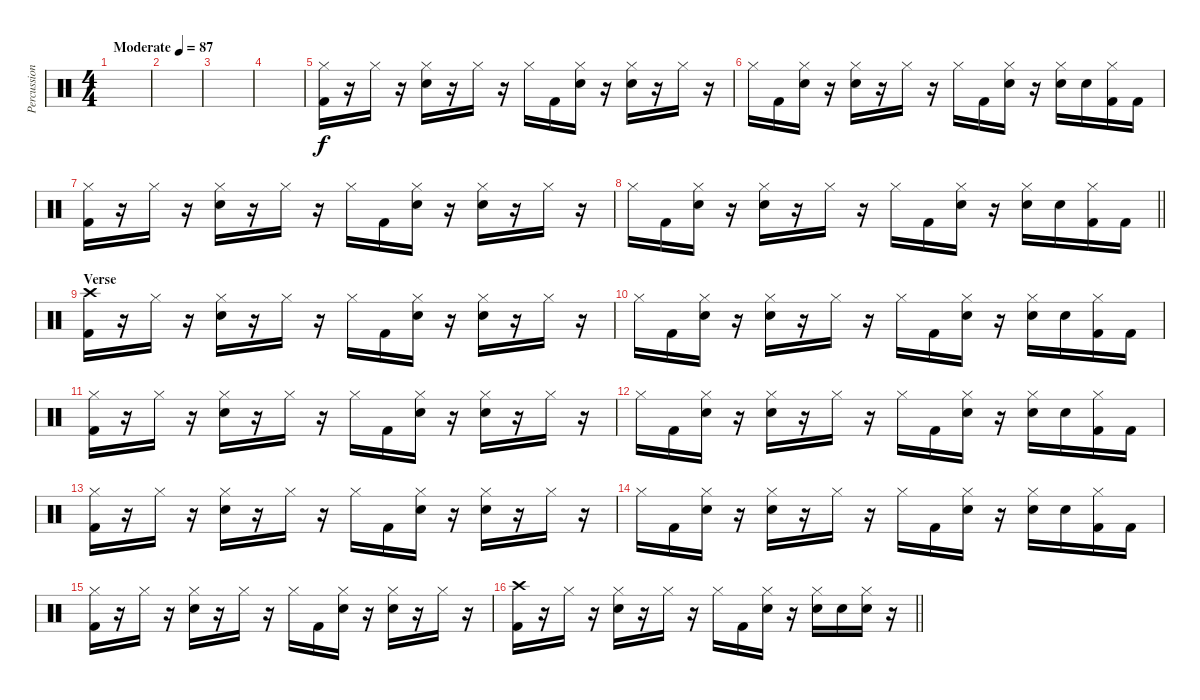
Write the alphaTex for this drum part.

\track ("Percussion" "Percussion") {instrument percussion}
\staff {score}
\articulation defaults
\ts (4 4)
\tempo (87 "Moderate")
\clef neutral
\ks c
|
|
|
|
("Hi-Hat (closed)" "Kick (hit) 2").16 r.16 "Hi-Hat (closed)".16 r.16 ("Hi-Hat (closed)" "Electric Snare (hit)").16 r.16 "Hi-Hat (closed)".16 r.16 "Hi-Hat (closed)".16 "Kick (hit) 2".16 ("Hi-Hat (closed)" "Electric Snare (hit)").16 r.16 ("Hi-Hat (closed)" "Electric Snare (hit)").16 r.16 "Hi-Hat (closed)".16 r.16 |
"Hi-Hat (closed)".16 "Kick (hit) 2".16 ("Hi-Hat (closed)" "Electric Snare (hit)").16 r.16 ("Hi-Hat (closed)" "Electric Snare (hit)").16 r.16 "Hi-Hat (closed)".16 r.16 "Hi-Hat (closed)".16 "Kick (hit) 2".16 ("Hi-Hat (closed)" "Electric Snare (hit)").16 r.16 ("Hi-Hat (closed)" "Electric Snare (hit)").16 "Electric Snare (hit)".16 ("Hi-Hat (closed)" "Kick (hit) 2").16 "Kick (hit) 2".16 |
("Hi-Hat (closed)" "Kick (hit) 2").16 r.16 "Hi-Hat (closed)".16 r.16 ("Hi-Hat (closed)" "Electric Snare (hit)").16 r.16 "Hi-Hat (closed)".16 r.16 "Hi-Hat (closed)".16 "Kick (hit) 2".16 ("Hi-Hat (closed)" "Electric Snare (hit)").16 r.16 ("Hi-Hat (closed)" "Electric Snare (hit)").16 r.16 "Hi-Hat (closed)".16 r.16 |
\barLineRight lightlight "Hi-Hat (closed)".16 "Kick (hit) 2".16
("Hi-Hat (closed)" "Electric Snare (hit)").16 r.16 ("Hi-Hat (closed)" "Electric Snare (hit)").16 r.16 "Hi-Hat (closed)".16 r.16 "Hi-Hat (closed)".16 "Kick (hit) 2".16 ("Hi-Hat (closed)" "Electric Snare (hit)").16 r.16 ("Hi-Hat (closed)" "Electric Snare (hit)").16 "Electric Snare (hit)".16 ("Hi-Hat (closed)" "Kick (hit) 2").16 "Kick (hit) 2".16 |
\section ("" "Verse")
("Crash high (hit)" "Kick (hit) 2").16 r.16 "Hi-Hat (closed)".16 r.16 ("Hi-Hat (closed)" "Electric Snare (hit)").16 r.16 "Hi-Hat (closed)".16 r.16 "Hi-Hat (closed)".16 "Kick (hit) 2".16 ("Hi-Hat (closed)" "Electric Snare (hit)").16 r.16 ("Hi-Hat (closed)" "Electric Snare (hit)").16 r.16 "Hi-Hat (closed)".16 r.16 |
"Hi-Hat (closed)".16 "Kick (hit) 2".16 ("Hi-Hat (closed)" "Electric Snare (hit)").16 r.16 ("Hi-Hat (closed)" "Electric Snare (hit)").16 r.16 "Hi-Hat (closed)".16 r.16 "Hi-Hat (closed)".16 "Kick (hit) 2".16 ("Hi-Hat (closed)" "Electric Snare (hit)").16 r.16 ("Hi-Hat (closed)" "Electric Snare (hit)").16 "Electric Snare (hit)".16 ("Hi-Hat (closed)" "Kick (hit) 2").16 "Kick (hit) 2".16 |
("Hi-Hat (closed)" "Kick (hit) 2").16 r.16 "Hi-Hat (closed)".16 r.16 ("Hi-Hat (closed)" "Electric Snare (hit)").16 r.16 "Hi-Hat (closed)".16 r.16 "Hi-Hat (closed)".16 "Kick (hit) 2".16 ("Hi-Hat (closed)" "Electric Snare (hit)").16 r.16 ("Hi-Hat (closed)" "Electric Snare (hit)").16 r.16 "Hi-Hat (closed)".16 r.16 |
"Hi-Hat (closed)".16 "Kick (hit) 2".16 ("Hi-Hat (closed)" "Electric Snare (hit)").16 r.16 ("Hi-Hat (closed)" "Electric Snare (hit)").16 r.16 "Hi-Hat (closed)".16 r.16 "Hi-Hat (closed)".16 "Kick (hit) 2".16 ("Hi-Hat (closed)" "Electric Snare (hit)").16 r.16 ("Hi-Hat (closed)" "Electric Snare (hit)").16 "Electric Snare (hit)".16 ("Hi-Hat (closed)" "Kick (hit) 2").16 "Kick (hit) 2".16 |
("Hi-Hat (closed)" "Kick (hit) 2").16 r.16 "Hi-Hat (closed)".16 r.16 ("Hi-Hat (closed)" "Electric Snare (hit)").16 r.16 "Hi-Hat (closed)".16 r.16 "Hi-Hat (closed)".16 "Kick (hit) 2".16 ("Hi-Hat (closed)" "Electric Snare (hit)").16 r.16 ("Hi-Hat (closed)" "Electric Snare (hit)").16 r.16 "Hi-Hat (closed)".16 r.16 |
"Hi-Hat (closed)".16 "Kick (hit) 2".16 ("Hi-Hat (closed)" "Electric Snare (hit)").16 r.16 ("Hi-Hat (closed)" "Electric Snare (hit)").16 r.16 "Hi-Hat (closed)".16 r.16 "Hi-Hat (closed)".16 "Kick (hit) 2".16 ("Hi-Hat (closed)" "Electric Snare (hit)").16 r.16 ("Hi-Hat (closed)" "Electric Snare (hit)").16 "Electric Snare (hit)".16 ("Hi-Hat (closed)" "Kick (hit) 2").16 "Kick (hit) 2".16 |
("Hi-Hat (closed)" "Kick (hit) 2").16 r.16 "Hi-Hat (closed)".16 r.16 ("Hi-Hat (closed)" "Electric Snare (hit)").16 r.16 "Hi-Hat (closed)".16 r.16 "Hi-Hat (closed)".16 "Kick (hit) 2".16 ("Hi-Hat (closed)" "Electric Snare (hit)").16 r.16 ("Hi-Hat (closed)" "Electric Snare (hit)").16 r.16 "Hi-Hat (closed)".16 r.16 |
\barLineRight lightlight
("Crash high (hit)" "Kick (hit) 2").16 r.16 "Hi-Hat (closed)".16 r.16 ("Hi-Hat (closed)" "Electric Snare (hit)").16 r.16 "Hi-Hat (closed)".16 r.16 "Hi-Hat (closed)".16 "Kick (hit) 2".16 ("Hi-Hat (closed)" "Electric Snare (hit)").16 r.16 ("Hi-Hat (closed)" "Electric Snare (hit)").16 "Electric Snare (hit)".16 ("Hi-Hat (closed)" "Electric Snare (hit)").16 r.16
